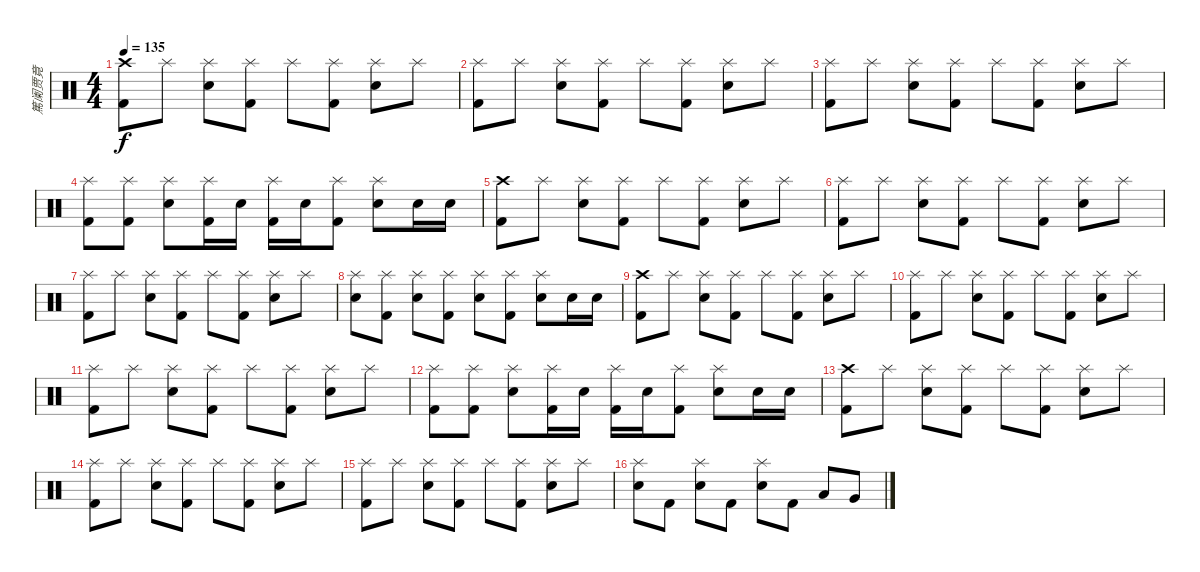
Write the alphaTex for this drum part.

\track ("篤阑贾竟" "篤阑贾竟") {instrument percussion}
\staff {score}
\articulation defaults
\ts (4 4)
\tempo 135
\clef neutral
\ks c
("Crash high (hit)" "Kick (hit) 2").8{dy f} "Splash (hit)".8 ("Splash (hit)" "Electric Snare (hit)").8 ("Splash (hit)" "Kick (hit) 2").8 "Splash (hit)".8 ("Splash (hit)" "Kick (hit) 2").8 ("Splash (hit)" "Electric Snare (hit)").8 "Splash (hit)".8 |
("Splash (hit)" "Kick (hit) 2").8 "Splash (hit)".8 ("Splash (hit)" "Electric Snare (hit)").8 ("Splash (hit)" "Kick (hit) 2").8 "Splash (hit)".8 ("Splash (hit)" "Kick (hit) 2").8 ("Splash (hit)" "Electric Snare (hit)").8 "Splash (hit)".8 |
("Splash (hit)" "Kick (hit) 2").8 "Splash (hit)".8 ("Splash (hit)" "Electric Snare (hit)").8 ("Splash (hit)" "Kick (hit) 2").8 "Splash (hit)".8 ("Splash (hit)" "Kick (hit) 2").8 ("Splash (hit)" "Electric Snare (hit)").8 "Splash (hit)".8 |
("Splash (hit)" "Kick (hit) 2").8 ("Splash (hit)" "Kick (hit) 2").8 ("Splash (hit)" "Electric Snare (hit)").8 ("Splash (hit)" "Kick (hit) 2").16 "Electric Snare (hit)".16 ("Splash (hit)" "Kick (hit) 2").16 "Electric Snare (hit)".16 ("Splash (hit)" "Kick (hit) 2").8 ("Splash (hit)" "Electric Snare (hit)").8 "Electric Snare (hit)".16 "Electric Snare (hit)".16 |
("Crash high (hit)" "Kick (hit) 2").8 "Splash (hit)".8 ("Splash (hit)" "Electric Snare (hit)").8 ("Splash (hit)" "Kick (hit) 2").8 "Splash (hit)".8 ("Splash (hit)" "Kick (hit) 2").8 ("Splash (hit)" "Electric Snare (hit)").8 "Splash (hit)".8 |
("Splash (hit)" "Kick (hit) 2").8 "Splash (hit)".8 ("Splash (hit)" "Electric Snare (hit)").8 ("Splash (hit)" "Kick (hit) 2").8 "Splash (hit)".8 ("Splash (hit)" "Kick (hit) 2").8 ("Splash (hit)" "Electric Snare (hit)").8 "Splash (hit)".8 |
("Splash (hit)" "Kick (hit) 2").8 "Splash (hit)".8 ("Splash (hit)" "Electric Snare (hit)").8 ("Splash (hit)" "Kick (hit) 2").8 "Splash (hit)".8 ("Splash (hit)" "Kick (hit) 2").8 ("Splash (hit)" "Electric Snare (hit)").8 "Splash (hit)".8 |
("Splash (hit)" "Electric Snare (hit)").8 ("Splash (hit)" "Kick (hit) 2").8 ("Splash (hit)" "Electric Snare (hit)").8 ("Splash (hit)" "Kick (hit) 2").8 ("Splash (hit)" "Electric Snare (hit)").8 ("Splash (hit)" "Kick (hit) 2").8 ("Splash (hit)" "Electric Snare (hit)").8 "Electric Snare (hit)".16 "Electric Snare (hit)".16 |
("Crash high (hit)" "Kick (hit) 2").8 "Splash (hit)".8 ("Splash (hit)" "Electric Snare (hit)").8 ("Splash (hit)" "Kick (hit) 2").8 "Splash (hit)".8 ("Splash (hit)" "Kick (hit) 2").8 ("Splash (hit)" "Electric Snare (hit)").8 "Splash (hit)".8 |
("Splash (hit)" "Kick (hit) 2").8 "Splash (hit)".8 ("Splash (hit)" "Electric Snare (hit)").8 ("Splash (hit)" "Kick (hit) 2").8 "Splash (hit)".8 ("Splash (hit)" "Kick (hit) 2").8 ("Splash (hit)" "Electric Snare (hit)").8 "Splash (hit)".8 |
("Splash (hit)" "Kick (hit) 2").8 "Splash (hit)".8 ("Splash (hit)" "Electric Snare (hit)").8 ("Splash (hit)" "Kick (hit) 2").8 "Splash (hit)".8 ("Splash (hit)" "Kick (hit) 2").8 ("Splash (hit)" "Electric Snare (hit)").8 "Splash (hit)".8 |
("Splash (hit)" "Kick (hit) 2").8 ("Splash (hit)" "Kick (hit) 2").8 ("Splash (hit)" "Electric Snare (hit)").8 ("Splash (hit)" "Kick (hit) 2").16 "Electric Snare (hit)".16 ("Splash (hit)" "Kick (hit) 2").16 "Electric Snare (hit)".16 ("Splash (hit)" "Kick (hit) 2").8 ("Splash (hit)" "Electric Snare (hit)").8 "Electric Snare (hit)".16 "Electric Snare (hit)".16 |
("Crash high (hit)" "Kick (hit) 2").8 "Splash (hit)".8 ("Splash (hit)" "Electric Snare (hit)").8 ("Splash (hit)" "Kick (hit) 2").8 "Splash (hit)".8 ("Splash (hit)" "Kick (hit) 2").8 ("Splash (hit)" "Electric Snare (hit)").8 "Splash (hit)".8 |
("Splash (hit)" "Kick (hit) 2").8 "Splash (hit)".8 ("Splash (hit)" "Electric Snare (hit)").8 ("Splash (hit)" "Kick (hit) 2").8 "Splash (hit)".8 ("Splash (hit)" "Kick (hit) 2").8 ("Splash (hit)" "Electric Snare (hit)").8 "Splash (hit)".8 |
("Splash (hit)" "Kick (hit) 2").8 "Splash (hit)".8 ("Splash (hit)" "Electric Snare (hit)").8 ("Splash (hit)" "Kick (hit) 2").8 "Splash (hit)".8 ("Splash (hit)" "Kick (hit) 2").8 ("Splash (hit)" "Electric Snare (hit)").8 "Splash (hit)".8 |
("Splash (hit)" "Electric Snare (hit)").8 "Kick (hit) 2".8 ("Splash (hit)" "Electric Snare (hit)").8 "Kick (hit) 2".8 ("Splash (hit)" "Electric Snare (hit)").8 "Kick (hit) 2".8 "Low Tom (hit)".8 "Very Low Tom (hit)".8
